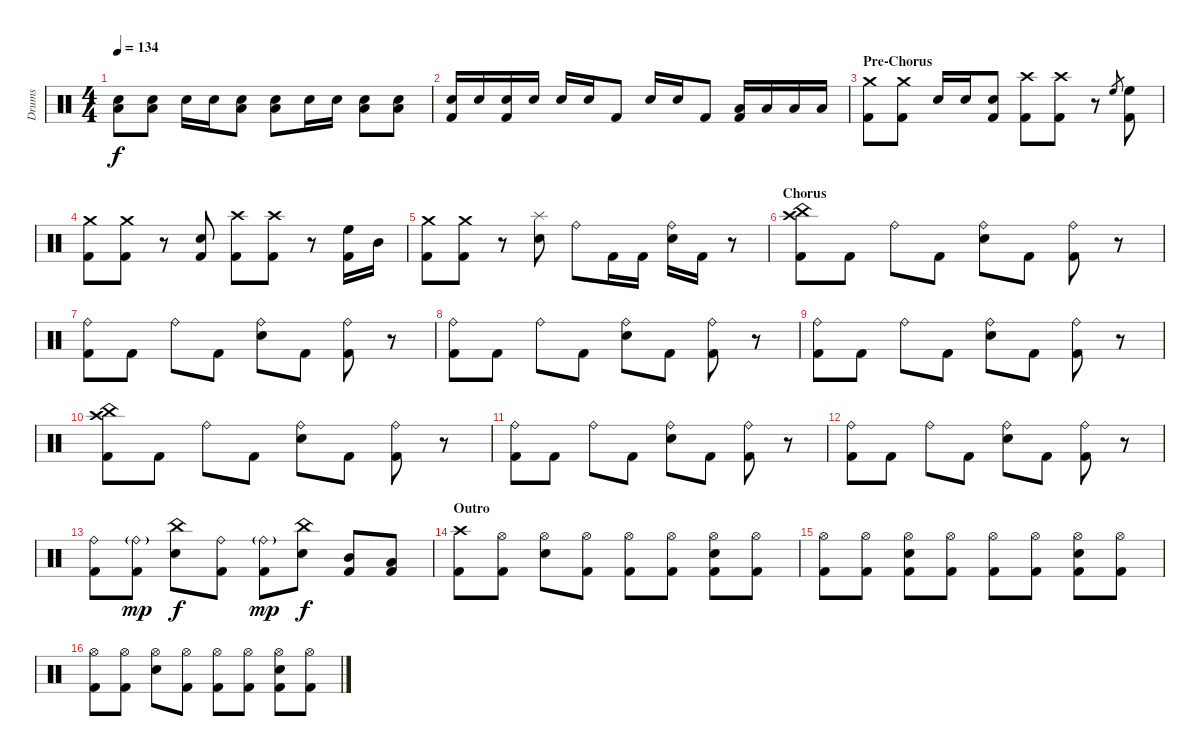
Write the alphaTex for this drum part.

\track ("Drums" "Drums") {instrument percussion}
\staff {score}
\articulation defaults
\ts (4 4)
\tempo 134
\clef neutral
\ks c
("Electric Snare (hit)" "Low Floor Tom (hit)").8{dy f} ("Electric Snare (hit)" "Low Floor Tom (hit)").8 "Electric Snare (hit)".16 "Electric Snare (hit)".16 ("Electric Snare (hit)" "Low Floor Tom (hit)").8 ("Electric Snare (hit)" "Low Floor Tom (hit)").8 "Electric Snare (hit)".16 "Electric Snare (hit)".16 ("Electric Snare (hit)" "Low Floor Tom (hit)").8 ("Electric Snare (hit)" "Low Floor Tom (hit)").8 |
("Electric Snare (hit)" "Kick (hit) 2").16 "Electric Snare (hit)".16 ("Electric Snare (hit)" "Kick (hit) 2").16 "Electric Snare (hit)".16 "Electric Snare (hit)".16 "Electric Snare (hit)".16 "Kick (hit) 2".8 "Electric Snare (hit)".16 "Electric Snare (hit)".16 "Kick (hit) 2".8 ("Low Tom (hit)" "Kick (hit) 2").16 "Low Tom (hit)".16 "Low Floor Tom (hit)".16 "Low Floor Tom (hit)".16 |
\section ("" "Pre-Chorus")
("Crash medium (hit)" "Kick (hit) 2").8 ("Crash medium (hit)" "Kick (hit) 2").8 "Electric Snare (hit)".16 "Electric Snare (hit)".16 ("Electric Snare (hit)" "Kick (hit) 2").8 ("Crash high (hit)" "Kick (hit) 2").8 ("Crash high (hit)" "Kick (hit) 2").8 r.8 "High Floor Tom (hit)".8{gr} ("High Floor Tom (hit)" "Kick (hit) 2").8 |
("Crash medium (hit)" "Kick (hit) 2").8 ("Crash medium (hit)" "Kick (hit) 2").8 r.8 ("Electric Snare (hit)" "Kick (hit) 2").8 ("Crash high (hit)" "Kick (hit) 2").8 ("Crash high (hit)" "Kick (hit) 2").8 r.8 ("High Floor Tom (hit)" "Kick (hit) 2").16 "Mid Tom (hit)".16 |
("Crash medium (hit)" "Kick (hit) 2").8 ("Crash medium (hit)" "Kick (hit) 2").8 r.8 ("Splash (hit)" "Electric Snare (hit)").8 "Ride (bell)".8 "Kick (hit) 2".16 "Kick (hit) 2".16 ("Ride (bell)" "Electric Snare (hit)").16 "Kick (hit) 2".16 r.8 |
\section ("" "Chorus")
("Crash high (hit)" "China (hit)" "Kick (hit) 2").8 "Kick (hit) 2".8 "Ride (bell)".8 "Kick (hit) 2".8 ("Ride (bell)" "Electric Snare (hit)").8 "Kick (hit) 2".8 ("Ride (bell)" "Kick (hit) 2").8 r.8 |
("Ride (bell)" "Kick (hit) 2").8 "Kick (hit) 2".8 "Ride (bell)".8 "Kick (hit) 2".8 ("Ride (bell)" "Electric Snare (hit)").8 "Kick (hit) 2".8 ("Ride (bell)" "Kick (hit) 2").8 r.8 |
("Ride (bell)" "Kick (hit) 2").8 "Kick (hit) 2".8 "Ride (bell)".8 "Kick (hit) 2".8 ("Ride (bell)" "Electric Snare (hit)").8 "Kick (hit) 2".8 ("Ride (bell)" "Kick (hit) 2").8 r.8 |
("Ride (bell)" "Kick (hit) 2").8 "Kick (hit) 2".8 "Ride (bell)".8 "Kick (hit) 2".8 ("Ride (bell)" "Electric Snare (hit)").8 "Kick (hit) 2".8 ("Ride (bell)" "Kick (hit) 2").8 r.8 |
("Crash high (hit)" "China (hit)" "Kick (hit) 2").8 "Kick (hit) 2".8 "Ride (bell)".8 "Kick (hit) 2".8 ("Ride (bell)" "Electric Snare (hit)").8 "Kick (hit) 2".8 ("Ride (bell)" "Kick (hit) 2").8 r.8 |
("Ride (bell)" "Kick (hit) 2").8 "Kick (hit) 2".8 "Ride (bell)".8 "Kick (hit) 2".8 ("Ride (bell)" "Electric Snare (hit)").8 "Kick (hit) 2".8 ("Ride (bell)" "Kick (hit) 2").8 r.8 |
("Ride (bell)" "Kick (hit) 2").8 "Kick (hit) 2".8 "Ride (bell)".8 "Kick (hit) 2".8 ("Ride (bell)" "Electric Snare (hit)").8 "Kick (hit) 2".8 ("Ride (bell)" "Kick (hit) 2").8 r.8 |
("Ride (bell)" "Kick (hit) 2").8 ("Ride (bell)"{g} "Kick (hit) 2").8{dy mp} ("China (hit)" "Electric Snare (hit)").8{dy f} ("Ride (bell)" "Kick (hit) 2").8 ("Ride (bell)"{g} "Kick (hit) 2").8{dy mp} ("China (hit)" "Electric Snare (hit)").8{dy f} ("Mid Tom (hit)" "Kick (hit) 2").8 ("Low Tom (hit)" "Kick (hit) 2").8 |
\section ("" "Outro")
("Crash high (hit)" "Kick (hit) 2").8 ("Hi-Hat (open)" "Kick (hit) 2").8 ("Hi-Hat (open)" "Electric Snare (hit)").8 ("Hi-Hat (open)" "Kick (hit) 2").8 ("Hi-Hat (open)" "Kick (hit) 2").8 ("Hi-Hat (open)" "Kick (hit) 2").8 ("Hi-Hat (open)" "Electric Snare (hit)" "Kick (hit) 2").8 ("Hi-Hat (open)" "Kick (hit) 2").8 |
("Hi-Hat (open)" "Kick (hit) 2").8 ("Hi-Hat (open)" "Kick (hit) 2").8 ("Hi-Hat (open)" "Electric Snare (hit)" "Kick (hit) 2").8 ("Hi-Hat (open)" "Kick (hit) 2").8 ("Hi-Hat (open)" "Kick (hit) 2").8 ("Hi-Hat (open)" "Kick (hit) 2").8 ("Hi-Hat (open)" "Electric Snare (hit)" "Kick (hit) 2").8 ("Hi-Hat (open)" "Kick (hit) 2").8 |
("Hi-Hat (open)" "Kick (hit) 2").8 ("Hi-Hat (open)" "Kick (hit) 2").8 ("Hi-Hat (open)" "Electric Snare (hit)").8 ("Hi-Hat (open)" "Kick (hit) 2").8 ("Hi-Hat (open)" "Kick (hit) 2").8 ("Hi-Hat (open)" "Kick (hit) 2").8 ("Hi-Hat (open)" "Electric Snare (hit)" "Kick (hit) 2").8 ("Hi-Hat (open)" "Kick (hit) 2").8
